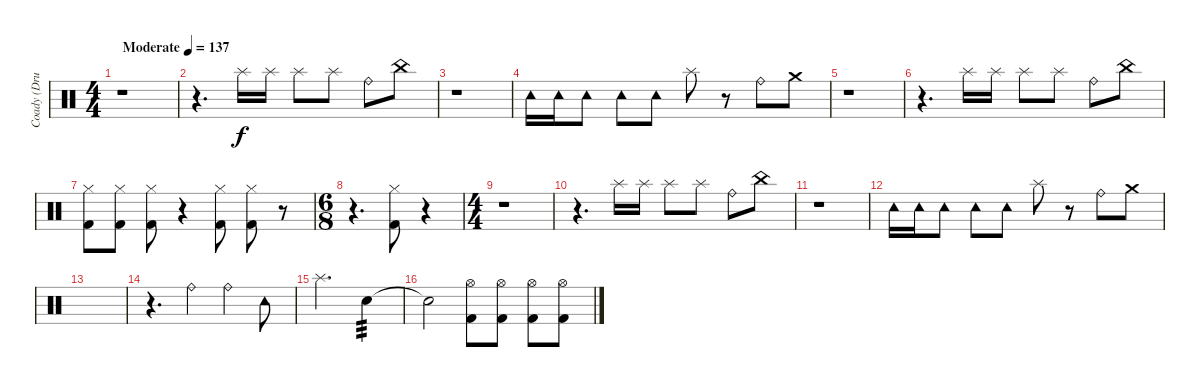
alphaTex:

\track ("Coady (Drums 2)" "Coady (Dru") {instrument percussion}
\staff {score}
\articulation defaults
\ts (4 4)
\tempo (137 "Moderate")
\clef neutral
\ks c
r.1{dy f} |
r.4{d} "Splash (hit)".16 "Splash (hit)".16 "Splash (hit)".8 "Splash (hit)".8 "Ride (bell)".8 "China (hit)".8 |
r.1 |
"Tambourine (hit)".16 "Tambourine (hit)".16 "Tambourine (hit)".8 "Tambourine (hit)".8 "Tambourine (hit)".8 "Splash (hit)".8 r.8 "Ride (bell)".8 "Crash medium (hit)".8 |
r.1 |
r.4{d} "Splash (hit)".16 "Splash (hit)".16 "Splash (hit)".8 "Splash (hit)".8 "Ride (bell)".8 "China (hit)".8 |
("Hi-Hat (closed)" "Kick (hit) 2").8 ("Hi-Hat (closed)" "Kick (hit) 2").8 ("Hi-Hat (closed)" "Kick (hit) 2").8 r.4 ("Kick (hit) 2" "Hi-Hat (closed)").8 ("Kick (hit) 2" "Hi-Hat (closed)").8 r.8 |
\ts (6 8)
r.4{d} ("Kick (hit) 2" "Hi-Hat (closed)").8 r.4 |
\ts (4 4)
r.1 |
r.4{d} "Splash (hit)".16 "Splash (hit)".16 "Splash (hit)".8 "Splash (hit)".8 "Ride (bell)".8 "China (hit)".8 |
r.1 |
"Tambourine (hit)".16 "Tambourine (hit)".16 "Tambourine (hit)".8 "Tambourine (hit)".8 "Tambourine (hit)".8 "Splash (hit)".8 r.8 "Ride (bell)".8 "Crash medium (hit)".8 |
|
r.4{d} "Ride (bell)".4 "Ride (bell)".4 "Tambourine (hit)".8 |
"Splash (hit)".2{d} "Snare (hit) 2".4{tp 3} |
"Snare (hit) 2"{t}.2 ("Kick (hit) 2" "Hi-Hat (open)").8 ("Kick (hit) 2" "Hi-Hat (open)").8 ("Kick (hit) 2" "Hi-Hat (open)").8 ("Kick (hit) 2" "Hi-Hat (open)").8
